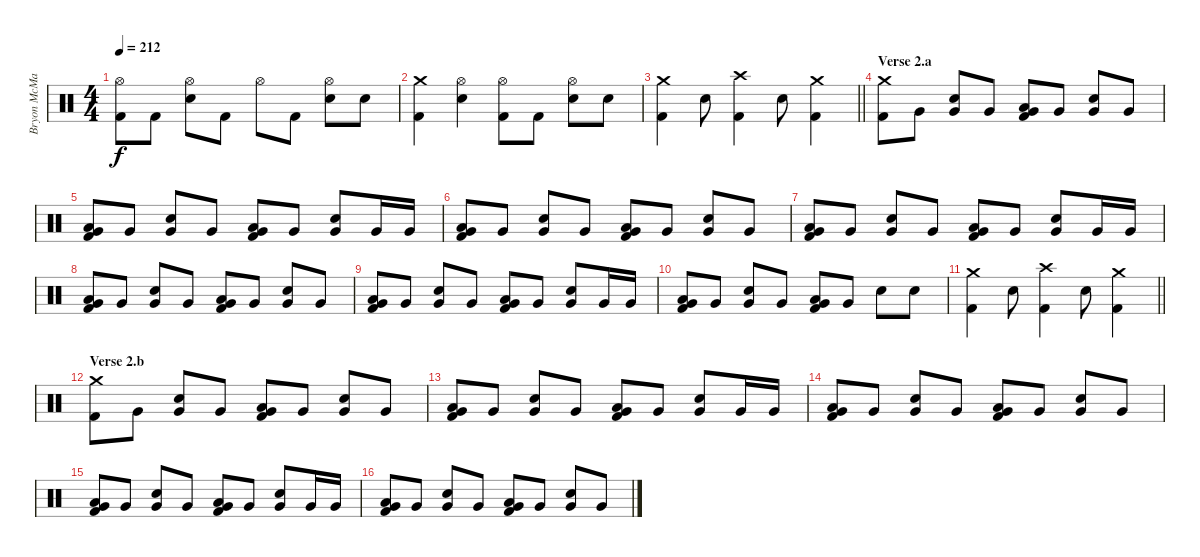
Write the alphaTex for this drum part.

\track ("Bryon McMackin - Drums" "Bryon McMa") {instrument percussion}
\staff {score}
\articulation defaults
\ts (4 4)
\tempo 212
\clef neutral
\ks c
("Hi-Hat (open)" "Kick (hit) 2").8{dy f} "Kick (hit) 2".8 ("Hi-Hat (open)" "Electric Snare (hit)").8 "Kick (hit) 2".8 "Hi-Hat (open)".8 "Kick (hit) 2".8 ("Hi-Hat (open)" "Electric Snare (hit)").8 "Electric Snare (hit)".8 |
("Crash medium (hit)" "Kick (hit) 2").4 ("Hi-Hat (open)" "Electric Snare (hit)").4 ("Hi-Hat (open)" "Kick (hit) 2").8 "Kick (hit) 2".8 ("Hi-Hat (open)" "Electric Snare (hit)").8 "Electric Snare (hit)".8 |
\barLineRight lightlight
("Crash medium (hit)" "Kick (hit) 2").4 "Electric Snare (hit)".8 ("Crash high (hit)" "Kick (hit) 2").4 "Electric Snare (hit)".8 ("Crash medium (hit)" "Kick (hit) 2").4 |
\section ("" "Verse 2.a")
("Crash medium (hit)" "Kick (hit) 2").8 "Very Low Tom (hit)".8 ("Electric Snare (hit)" "Very Low Tom (hit)").8 "Very Low Tom (hit)".8 ("Low Tom (hit)" "Very Low Tom (hit)" "Kick (hit) 2").8 "Very Low Tom (hit)".8 ("Electric Snare (hit)" "Very Low Tom (hit)").8 "Very Low Tom (hit)".8 |
("Low Tom (hit)" "Very Low Tom (hit)" "Kick (hit) 2").8 "Very Low Tom (hit)".8 ("Electric Snare (hit)" "Very Low Tom (hit)").8 "Very Low Tom (hit)".8 ("Low Tom (hit)" "Very Low Tom (hit)" "Kick (hit) 2").8 "Very Low Tom (hit)".8 ("Electric Snare (hit)" "Very Low Tom (hit)").8 "Very Low Tom (hit)".16 "Very Low Tom (hit)".16 |
("Low Tom (hit)" "Very Low Tom (hit)" "Kick (hit) 2").8 "Very Low Tom (hit)".8 ("Electric Snare (hit)" "Very Low Tom (hit)").8 "Very Low Tom (hit)".8 ("Low Tom (hit)" "Very Low Tom (hit)" "Kick (hit) 2").8 "Very Low Tom (hit)".8 ("Electric Snare (hit)" "Very Low Tom (hit)").8 "Very Low Tom (hit)".8 |
("Low Tom (hit)" "Very Low Tom (hit)" "Kick (hit) 2").8 "Very Low Tom (hit)".8 ("Electric Snare (hit)" "Very Low Tom (hit)").8 "Very Low Tom (hit)".8 ("Low Tom (hit)" "Very Low Tom (hit)" "Kick (hit) 2").8 "Very Low Tom (hit)".8 ("Electric Snare (hit)" "Very Low Tom (hit)").8 "Very Low Tom (hit)".16 "Very Low Tom (hit)".16 |
("Low Tom (hit)" "Very Low Tom (hit)" "Kick (hit) 2").8 "Very Low Tom (hit)".8 ("Electric Snare (hit)" "Very Low Tom (hit)").8 "Very Low Tom (hit)".8 ("Low Tom (hit)" "Very Low Tom (hit)" "Kick (hit) 2").8 "Very Low Tom (hit)".8 ("Electric Snare (hit)" "Very Low Tom (hit)").8 "Very Low Tom (hit)".8 |
("Low Tom (hit)" "Very Low Tom (hit)" "Kick (hit) 2").8 "Very Low Tom (hit)".8 ("Electric Snare (hit)" "Very Low Tom (hit)").8 "Very Low Tom (hit)".8 ("Low Tom (hit)" "Very Low Tom (hit)" "Kick (hit) 2").8 "Very Low Tom (hit)".8 ("Electric Snare (hit)" "Very Low Tom (hit)").8 "Very Low Tom (hit)".16 "Very Low Tom (hit)".16 |
("Low Tom (hit)" "Very Low Tom (hit)" "Kick (hit) 2").8 "Very Low Tom (hit)".8 ("Electric Snare (hit)" "Very Low Tom (hit)").8 "Very Low Tom (hit)".8 ("Low Tom (hit)" "Very Low Tom (hit)" "Kick (hit) 2").8 "Very Low Tom (hit)".8 "Electric Snare (hit)".8 "Electric Snare (hit)".8 |
\barLineRight lightlight
("Crash medium (hit)" "Kick (hit) 2").4 "Electric Snare (hit)".8 ("Crash high (hit)" "Kick (hit) 2").4 "Electric Snare (hit)".8 ("Crash medium (hit)" "Kick (hit) 2").4 |
\section ("" "Verse 2.b")
("Crash medium (hit)" "Kick (hit) 2").8 "Very Low Tom (hit)".8 ("Electric Snare (hit)" "Very Low Tom (hit)").8 "Very Low Tom (hit)".8 ("Low Tom (hit)" "Very Low Tom (hit)" "Kick (hit) 2").8 "Very Low Tom (hit)".8 ("Electric Snare (hit)" "Very Low Tom (hit)").8 "Very Low Tom (hit)".8 |
("Low Tom (hit)" "Very Low Tom (hit)" "Kick (hit) 2").8 "Very Low Tom (hit)".8 ("Electric Snare (hit)" "Very Low Tom (hit)").8 "Very Low Tom (hit)".8 ("Low Tom (hit)" "Very Low Tom (hit)" "Kick (hit) 2").8 "Very Low Tom (hit)".8 ("Electric Snare (hit)" "Very Low Tom (hit)").8 "Very Low Tom (hit)".16 "Very Low Tom (hit)".16 |
("Low Tom (hit)" "Very Low Tom (hit)" "Kick (hit) 2").8 "Very Low Tom (hit)".8 ("Electric Snare (hit)" "Very Low Tom (hit)").8 "Very Low Tom (hit)".8 ("Low Tom (hit)" "Very Low Tom (hit)" "Kick (hit) 2").8 "Very Low Tom (hit)".8 ("Electric Snare (hit)" "Very Low Tom (hit)").8 "Very Low Tom (hit)".8 |
("Low Tom (hit)" "Very Low Tom (hit)" "Kick (hit) 2").8 "Very Low Tom (hit)".8 ("Electric Snare (hit)" "Very Low Tom (hit)").8 "Very Low Tom (hit)".8 ("Low Tom (hit)" "Very Low Tom (hit)" "Kick (hit) 2").8 "Very Low Tom (hit)".8 ("Electric Snare (hit)" "Very Low Tom (hit)").8 "Very Low Tom (hit)".16 "Very Low Tom (hit)".16 |
("Low Tom (hit)" "Very Low Tom (hit)" "Kick (hit) 2").8 "Very Low Tom (hit)".8 ("Electric Snare (hit)" "Very Low Tom (hit)").8 "Very Low Tom (hit)".8 ("Low Tom (hit)" "Very Low Tom (hit)" "Kick (hit) 2").8 "Very Low Tom (hit)".8 ("Electric Snare (hit)" "Very Low Tom (hit)").8 "Very Low Tom (hit)".8
